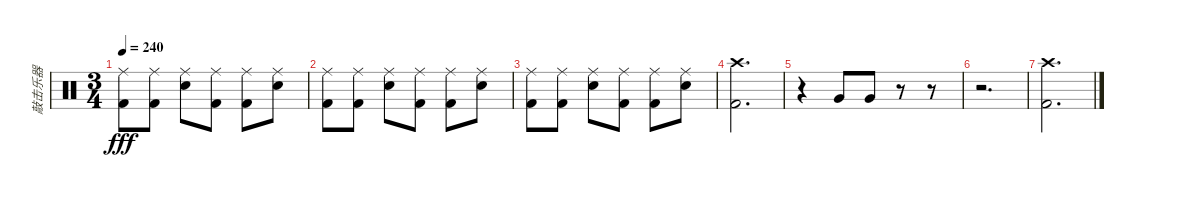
\track ("敲击乐器" "敲击乐器") {instrument percussion}
\staff {score}
\articulation defaults
\ts (3 4)
\tempo 240
\clef neutral
\ks c
("Ride (middle)" "Kick (hit) 2").8{dy fff} ("Ride (middle)" "Kick (hit) 2").8 ("Ride (middle)" "Snare (hit) 2").8 ("Ride (middle)" "Kick (hit) 2").8 ("Ride (middle)" "Kick (hit) 2").8 ("Ride (middle)" "Snare (hit) 2").8 |
("Ride (middle)" "Kick (hit) 2").8 ("Ride (middle)" "Kick (hit) 2").8 ("Ride (middle)" "Snare (hit) 2").8 ("Ride (middle)" "Kick (hit) 2").8 ("Ride (middle)" "Kick (hit) 2").8 ("Ride (middle)" "Snare (hit) 2").8 |
("Ride (middle)" "Kick (hit) 2").8 ("Ride (middle)" "Kick (hit) 2").8 ("Ride (middle)" "Snare (hit) 2").8 ("Ride (middle)" "Kick (hit) 2").8 ("Ride (middle)" "Kick (hit) 2").8 ("Ride (middle)" "Snare (hit) 2").8 |
("Crash high (hit)" "Kick (hit) 2").2{d} |
r.4 "Very Low Tom (hit)".8 "Very Low Tom (hit)".8 r.8 r.8 |
r.2{d} |
("Crash high (hit)" "Kick (hit) 2").2{d}
